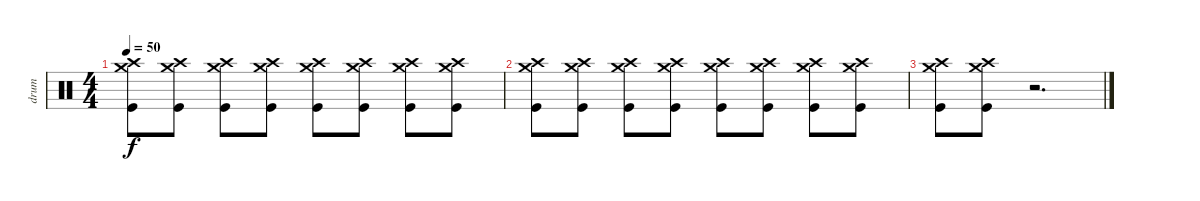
\track ("drum" "drum") {instrument percussion}
\staff {score}
\articulation defaults
\ts (4 4)
\tempo 50
\clef neutral
\ks c
("Crash high (hit)" "Crash medium (hit)" "Kick (hit)").8{dy f} ("Crash high (hit)" "Crash medium (hit)" "Kick (hit)").8 ("Crash high (hit)" "Crash medium (hit)" "Kick (hit)").8 ("Crash high (hit)" "Crash medium (hit)" "Kick (hit)").8 ("Crash high (hit)" "Crash medium (hit)" "Kick (hit)").8 ("Crash high (hit)" "Crash medium (hit)" "Kick (hit)").8 ("Crash high (hit)" "Crash medium (hit)" "Kick (hit)").8 ("Crash high (hit)" "Crash medium (hit)" "Kick (hit)").8 |
("Crash high (hit)" "Crash medium (hit)" "Kick (hit)").8 ("Crash high (hit)" "Crash medium (hit)" "Kick (hit)").8 ("Crash high (hit)" "Crash medium (hit)" "Kick (hit)").8 ("Crash high (hit)" "Crash medium (hit)" "Kick (hit)").8 ("Crash high (hit)" "Crash medium (hit)" "Kick (hit)").8 ("Crash high (hit)" "Crash medium (hit)" "Kick (hit)").8 ("Crash high (hit)" "Crash medium (hit)" "Kick (hit)").8 ("Crash high (hit)" "Crash medium (hit)" "Kick (hit)").8 |
("Crash high (hit)" "Crash medium (hit)" "Kick (hit)").8 ("Crash high (hit)" "Crash medium (hit)" "Kick (hit)").8 r.2{d}
